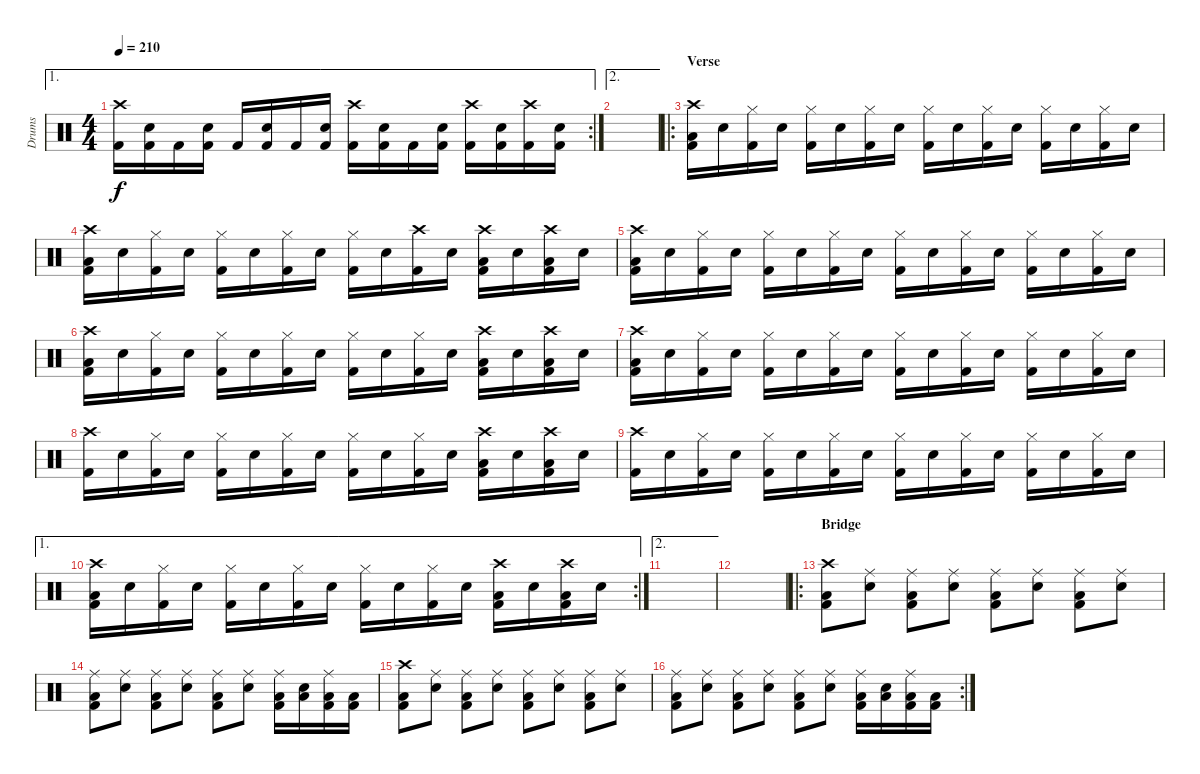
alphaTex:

\track ("Drums" "Drums") {instrument percussion}
\staff {score}
\articulation defaults
\ae 1
\rc 2
\ts (4 4)
\tempo 210
\clef neutral
\ks c
("Crash high (hit)" "Kick (hit) 2").16{dy f} ("Snare (hit) 2" "Kick (hit) 2").16 "Kick (hit) 2".16 ("Snare (hit) 2" "Kick (hit) 2").16 "Kick (hit) 2".16 ("Snare (hit) 2" "Kick (hit) 2").16 "Kick (hit) 2".16 ("Snare (hit) 2" "Kick (hit) 2").16 ("Crash high (hit)" "Kick (hit) 2").16 ("Snare (hit) 2" "Kick (hit) 2").16 "Kick (hit) 2".16 ("Snare (hit) 2" "Kick (hit) 2").16 ("Crash high (hit)" "Kick (hit) 2").16 ("Snare (hit) 2" "Kick (hit) 2").16 ("Crash high (hit)" "Kick (hit) 2").16 ("Snare (hit) 2" "Kick (hit) 2").16 |
\ae 2
|
\ro
\section ("" "Verse")
("Crash high (hit)" "Low Floor Tom (hit)" "Kick (hit) 2").16 "Snare (hit) 2".16 ("Hi-Hat (closed)" "Kick (hit) 2").16 "Snare (hit) 2".16 ("Hi-Hat (closed)" "Kick (hit) 2").16 "Snare (hit) 2".16 ("Hi-Hat (closed)" "Kick (hit) 2").16 "Snare (hit) 2".16 ("Hi-Hat (closed)" "Kick (hit) 2").16 "Snare (hit) 2".16 ("Hi-Hat (closed)" "Kick (hit) 2").16 "Snare (hit) 2".16 ("Hi-Hat (closed)" "Kick (hit) 2").16 "Snare (hit) 2".16 ("Hi-Hat (closed)" "Kick (hit) 2").16 "Snare (hit) 2".16 |
("Crash high (hit)" "Low Floor Tom (hit)" "Kick (hit) 2").16 "Snare (hit) 2".16 ("Hi-Hat (closed)" "Kick (hit) 2").16 "Snare (hit) 2".16 ("Hi-Hat (closed)" "Kick (hit) 2").16 "Snare (hit) 2".16 ("Hi-Hat (closed)" "Kick (hit) 2").16 "Snare (hit) 2".16 ("Hi-Hat (closed)" "Kick (hit) 2").16 "Snare (hit) 2".16 ("Crash high (hit)" "Kick (hit) 2").16 "Snare (hit) 2".16 ("Crash high (hit)" "Low Floor Tom (hit)" "Kick (hit) 2").16 "Snare (hit) 2".16 ("Crash high (hit)" "Low Floor Tom (hit)" "Kick (hit) 2").16 "Snare (hit) 2".16 |
("Crash high (hit)" "Low Floor Tom (hit)" "Kick (hit) 2").16 "Snare (hit) 2".16 ("Hi-Hat (closed)" "Kick (hit) 2").16 "Snare (hit) 2".16 ("Hi-Hat (closed)" "Kick (hit) 2").16 "Snare (hit) 2".16 ("Hi-Hat (closed)" "Kick (hit) 2").16 "Snare (hit) 2".16 ("Hi-Hat (closed)" "Kick (hit) 2").16 "Snare (hit) 2".16 ("Hi-Hat (closed)" "Kick (hit) 2").16 "Snare (hit) 2".16 ("Hi-Hat (closed)" "Kick (hit) 2").16 "Snare (hit) 2".16 ("Hi-Hat (closed)" "Kick (hit) 2").16 "Snare (hit) 2".16 |
("Crash high (hit)" "Low Floor Tom (hit)" "Kick (hit) 2").16 "Snare (hit) 2".16 ("Hi-Hat (closed)" "Kick (hit) 2").16 "Snare (hit) 2".16 ("Hi-Hat (closed)" "Kick (hit) 2").16 "Snare (hit) 2".16 ("Hi-Hat (closed)" "Kick (hit) 2").16 "Snare (hit) 2".16 ("Hi-Hat (closed)" "Kick (hit) 2").16 "Snare (hit) 2".16 ("Hi-Hat (closed)" "Kick (hit) 2").16 "Snare (hit) 2".16 ("Crash high (hit)" "Low Floor Tom (hit)" "Kick (hit) 2").16 "Snare (hit) 2".16 ("Crash high (hit)" "Low Floor Tom (hit)" "Kick (hit) 2").16 "Snare (hit) 2".16 |
("Crash high (hit)" "Low Floor Tom (hit)" "Kick (hit) 2").16 "Snare (hit) 2".16 ("Hi-Hat (closed)" "Kick (hit) 2").16 "Snare (hit) 2".16 ("Hi-Hat (closed)" "Kick (hit) 2").16 "Snare (hit) 2".16 ("Hi-Hat (closed)" "Kick (hit) 2").16 "Snare (hit) 2".16 ("Hi-Hat (closed)" "Kick (hit) 2").16 "Snare (hit) 2".16 ("Hi-Hat (closed)" "Kick (hit) 2").16 "Snare (hit) 2".16 ("Hi-Hat (closed)" "Kick (hit) 2").16 "Snare (hit) 2".16 ("Hi-Hat (closed)" "Kick (hit) 2").16 "Snare (hit) 2".16 |
("Crash high (hit)" "Kick (hit) 2").16 "Snare (hit) 2".16 ("Hi-Hat (closed)" "Kick (hit) 2").16 "Snare (hit) 2".16 ("Hi-Hat (closed)" "Kick (hit) 2").16 "Snare (hit) 2".16 ("Hi-Hat (closed)" "Kick (hit) 2").16 "Snare (hit) 2".16 ("Hi-Hat (closed)" "Kick (hit) 2").16 "Snare (hit) 2".16 ("Hi-Hat (closed)" "Kick (hit) 2").16 "Snare (hit) 2".16 ("Crash high (hit)" "Low Floor Tom (hit)" "Kick (hit) 2").16 "Snare (hit) 2".16 ("Crash high (hit)" "Low Floor Tom (hit)" "Kick (hit) 2").16 "Snare (hit) 2".16 |
("Crash high (hit)" "Kick (hit) 2").16 "Snare (hit) 2".16 ("Hi-Hat (closed)" "Kick (hit) 2").16 "Snare (hit) 2".16 ("Hi-Hat (closed)" "Kick (hit) 2").16 "Snare (hit) 2".16 ("Hi-Hat (closed)" "Kick (hit) 2").16 "Snare (hit) 2".16 ("Hi-Hat (closed)" "Kick (hit) 2").16 "Snare (hit) 2".16 ("Hi-Hat (closed)" "Kick (hit) 2").16 "Snare (hit) 2".16 ("Hi-Hat (closed)" "Kick (hit) 2").16 "Snare (hit) 2".16 ("Hi-Hat (closed)" "Kick (hit) 2").16 "Snare (hit) 2".16 |
\ae 1
\rc 2
("Crash high (hit)" "Low Floor Tom (hit)" "Kick (hit) 2").16 "Snare (hit) 2".16 ("Hi-Hat (closed)" "Kick (hit) 2").16 "Snare (hit) 2".16 ("Hi-Hat (closed)" "Kick (hit) 2").16 "Snare (hit) 2".16 ("Hi-Hat (closed)" "Kick (hit) 2").16 "Snare (hit) 2".16 ("Hi-Hat (closed)" "Kick (hit) 2").16 "Snare (hit) 2".16 ("Hi-Hat (closed)" "Kick (hit) 2").16 "Snare (hit) 2".16 ("Crash high (hit)" "Low Floor Tom (hit)" "Kick (hit) 2").16 "Snare (hit) 2".16 ("Crash high (hit)" "Low Floor Tom (hit)" "Kick (hit) 2").16 "Snare (hit) 2".16 |
\ae 2
|
|
\ro
\section ("" "Bridge")
("Crash high (hit)" "Low Floor Tom (hit)" "Kick (hit) 2").8 ("Ride (middle)" "Snare (hit) 2").8 ("Ride (middle)" "Low Floor Tom (hit)" "Kick (hit) 2").8 ("Ride (middle)" "Snare (hit) 2").8 ("Ride (middle)" "Low Floor Tom (hit)" "Kick (hit) 2").8 ("Ride (middle)" "Snare (hit) 2").8 ("Ride (middle)" "Low Floor Tom (hit)" "Kick (hit) 2").8 ("Ride (middle)" "Snare (hit) 2").8 |
("Ride (middle)" "Low Floor Tom (hit)" "Kick (hit) 2").8 ("Ride (middle)" "Snare (hit) 2").8 ("Ride (middle)" "Low Floor Tom (hit)" "Kick (hit) 2").8 ("Ride (middle)" "Snare (hit) 2").8 ("Ride (middle)" "Low Floor Tom (hit)" "Kick (hit) 2").8 ("Ride (middle)" "Snare (hit) 2").8 ("Ride (middle)" "Low Floor Tom (hit)" "Kick (hit) 2").16 ("Low Floor Tom (hit)" "Snare (hit) 2").16 ("Ride (middle)" "Low Floor Tom (hit)" "Kick (hit) 2").16 ("Low Floor Tom (hit)" "Kick (hit) 2").16 |
("Crash high (hit)" "Low Floor Tom (hit)" "Kick (hit) 2").8 ("Ride (middle)" "Snare (hit) 2").8 ("Ride (middle)" "Low Floor Tom (hit)" "Kick (hit) 2").8 ("Ride (middle)" "Snare (hit) 2").8 ("Ride (middle)" "Low Floor Tom (hit)" "Kick (hit) 2").8 ("Ride (middle)" "Snare (hit) 2").8 ("Ride (middle)" "Low Floor Tom (hit)" "Kick (hit) 2").8 ("Ride (middle)" "Snare (hit) 2").8 |
\rc 2
("Ride (middle)" "Low Floor Tom (hit)" "Kick (hit) 2").8 ("Ride (middle)" "Snare (hit) 2").8 ("Ride (middle)" "Low Floor Tom (hit)" "Kick (hit) 2").8 ("Ride (middle)" "Snare (hit) 2").8 ("Ride (middle)" "Low Floor Tom (hit)" "Kick (hit) 2").8 ("Ride (middle)" "Snare (hit) 2").8 ("Ride (middle)" "Low Floor Tom (hit)" "Kick (hit) 2").16 ("Low Floor Tom (hit)" "Snare (hit) 2").16 ("Ride (middle)" "Low Floor Tom (hit)" "Kick (hit) 2").16 ("Low Floor Tom (hit)" "Kick (hit) 2").16
